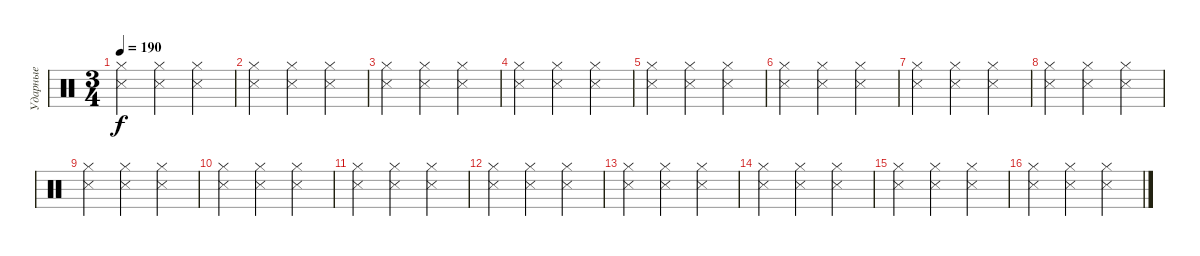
\track ("Ударные" "Ударные") {instrument percussion}
\staff {score}
\articulation defaults
\ts (3 4)
\tempo 190
\clef neutral
\ks c
("Hi-Hat (closed)" "Snare (side stick) 3").4{dy f} ("Hi-Hat (closed)" "Snare (side stick) 3").4 ("Hi-Hat (closed)" "Snare (side stick) 3").4 |
("Hi-Hat (closed)" "Snare (side stick) 3").4 ("Hi-Hat (closed)" "Snare (side stick) 3").4 ("Hi-Hat (closed)" "Snare (side stick) 3").4 |
("Hi-Hat (closed)" "Snare (side stick) 3").4 ("Hi-Hat (closed)" "Snare (side stick) 3").4 ("Hi-Hat (closed)" "Snare (side stick) 3").4 |
("Hi-Hat (closed)" "Snare (side stick) 3").4 ("Hi-Hat (closed)" "Snare (side stick) 3").4 ("Hi-Hat (closed)" "Snare (side stick) 3").4 |
("Hi-Hat (closed)" "Snare (side stick) 3").4 ("Hi-Hat (closed)" "Snare (side stick) 3").4 ("Hi-Hat (closed)" "Snare (side stick) 3").4 |
("Hi-Hat (closed)" "Snare (side stick) 3").4 ("Hi-Hat (closed)" "Snare (side stick) 3").4 ("Hi-Hat (closed)" "Snare (side stick) 3").4 |
("Hi-Hat (closed)" "Snare (side stick) 3").4 ("Hi-Hat (closed)" "Snare (side stick) 3").4 ("Hi-Hat (closed)" "Snare (side stick) 3").4 |
("Hi-Hat (closed)" "Snare (side stick) 3").4 ("Hi-Hat (closed)" "Snare (side stick) 3").4 ("Hi-Hat (closed)" "Snare (side stick) 3").4 |
("Hi-Hat (closed)" "Snare (side stick) 3").4 ("Hi-Hat (closed)" "Snare (side stick) 3").4 ("Hi-Hat (closed)" "Snare (side stick) 3").4 |
("Hi-Hat (closed)" "Snare (side stick) 3").4 ("Hi-Hat (closed)" "Snare (side stick) 3").4 ("Hi-Hat (closed)" "Snare (side stick) 3").4 |
("Hi-Hat (closed)" "Snare (side stick) 3").4 ("Hi-Hat (closed)" "Snare (side stick) 3").4 ("Hi-Hat (closed)" "Snare (side stick) 3").4 |
("Hi-Hat (closed)" "Snare (side stick) 3").4 ("Hi-Hat (closed)" "Snare (side stick) 3").4 ("Hi-Hat (closed)" "Snare (side stick) 3").4 |
("Hi-Hat (closed)" "Snare (side stick) 3").4 ("Hi-Hat (closed)" "Snare (side stick) 3").4 ("Hi-Hat (closed)" "Snare (side stick) 3").4 |
("Hi-Hat (closed)" "Snare (side stick) 3").4 ("Hi-Hat (closed)" "Snare (side stick) 3").4 ("Hi-Hat (closed)" "Snare (side stick) 3").4 |
("Hi-Hat (closed)" "Snare (side stick) 3").4 ("Hi-Hat (closed)" "Snare (side stick) 3").4 ("Hi-Hat (closed)" "Snare (side stick) 3").4 |
("Hi-Hat (closed)" "Snare (side stick) 3").4 ("Hi-Hat (closed)" "Snare (side stick) 3").4 ("Hi-Hat (closed)" "Snare (side stick) 3").4
